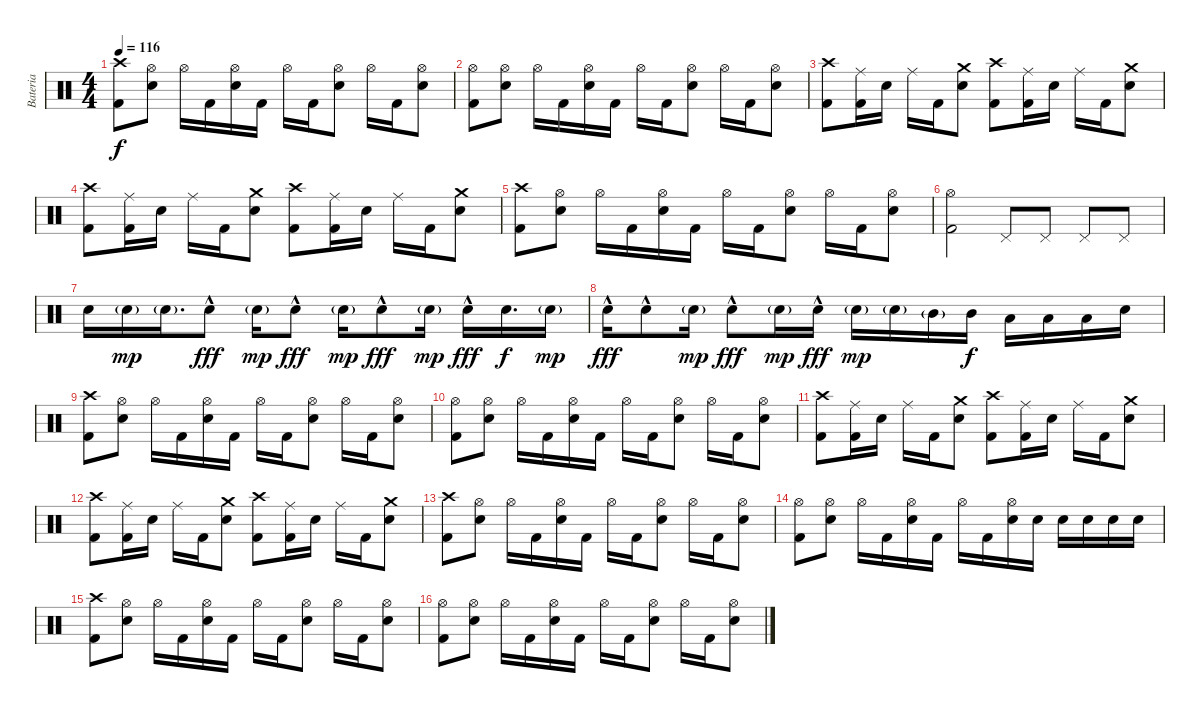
\track ("Bateria" "Bateria") {instrument percussion}
\staff {score}
\articulation defaults
\ts (4 4)
\tempo 116
\clef neutral
\ks c
("Kick (hit) 2" "Crash high (hit)").8{dy f} ("Snare (hit) 2" "Hi-Hat (open)").8 "Hi-Hat (open)".16 "Kick (hit) 2".16 ("Snare (hit) 2" "Hi-Hat (open)").16 "Kick (hit) 2".16 "Hi-Hat (open)".16 "Kick (hit) 2".16 ("Snare (hit) 2" "Hi-Hat (open)").8 "Hi-Hat (open)".16 "Kick (hit) 2".16 ("Snare (hit) 2" "Hi-Hat (open)").8 |
("Kick (hit) 2" "Hi-Hat (open)").8 ("Snare (hit) 2" "Hi-Hat (open)").8 "Hi-Hat (open)".16 "Kick (hit) 2".16 ("Snare (hit) 2" "Hi-Hat (open)").16 "Kick (hit) 2".16 "Hi-Hat (open)".16 "Kick (hit) 2".16 ("Snare (hit) 2" "Hi-Hat (open)").8 "Hi-Hat (open)".16 "Kick (hit) 2".16 ("Snare (hit) 2" "Hi-Hat (open)").8 |
("Kick (hit) 2" "Crash high (hit)").8 ("Kick (hit) 2" "Ride (middle)").16 "Snare (hit) 2".16 "Ride (middle)".16 "Kick (hit) 2".16 ("Snare (hit) 2" "Crash medium (hit)").8 ("Kick (hit) 2" "Crash high (hit)").8 ("Kick (hit) 2" "Ride (middle)").16 "Snare (hit) 2".16 "Ride (middle)".16 "Kick (hit) 2".16 ("Snare (hit) 2" "Crash medium (hit)").8 |
("Kick (hit) 2" "Crash high (hit)").8 ("Kick (hit) 2" "Ride (middle)").16 "Snare (hit) 2".16 "Ride (middle)".16 "Kick (hit) 2".16 ("Snare (hit) 2" "Crash medium (hit)").8 ("Kick (hit) 2" "Crash high (hit)").8 ("Kick (hit) 2" "Ride (middle)").16 "Snare (hit) 2".16 "Ride (middle)".16 "Kick (hit) 2".16 ("Snare (hit) 2" "Crash medium (hit)").8 |
("Kick (hit) 2" "Crash high (hit)").8 ("Snare (hit) 2" "Hi-Hat (open)").8 "Hi-Hat (open)".16 "Kick (hit) 2".16 ("Snare (hit) 2" "Hi-Hat (open)").16 "Kick (hit) 2".16 "Hi-Hat (open)".16 "Kick (hit) 2".16 ("Snare (hit) 2" "Hi-Hat (open)").8 "Hi-Hat (open)".16 "Kick (hit) 2".16 ("Snare (hit) 2" "Hi-Hat (open)").8 |
("Kick (hit) 2" "Hi-Hat (open)").2 "Pedal Hi-Hat (hit)".8 "Pedal Hi-Hat (hit)".8 "Pedal Hi-Hat (hit)".8 "Pedal Hi-Hat (hit)".8 |
"Snare (hit) 2".16 "Snare (hit) 2"{g}.16{dy mp} "Snare (hit) 2"{g}.16{d} "Snare (hit) 2"{hac}.8{dy fff} "Snare (hit) 2"{g}.16{dy mp} "Snare (hit) 2"{hac}.8{dy fff} "Snare (hit) 2"{g}.16{dy mp} "Snare (hit) 2"{hac}.8{dy fff} "Snare (hit) 2"{g}.16{dy mp} "Snare (hit) 2"{hac}.16{dy fff} "Snare (hit) 2".16{d dy f} "Snare (hit) 2"{g}.16{dy mp} |
"Snare (hit) 2"{hac}.16{dy fff} "Snare (hit) 2"{hac}.8 "Snare (hit) 2"{g}.16{dy mp} "Snare (hit) 2"{hac}.8{dy fff} "Snare (hit) 2"{g}.16{dy mp} "Snare (hit) 2"{hac}.16{dy fff} "Snare (hit) 2"{g}.16{dy mp} "Snare (hit) 2"{g}.16 "Mid Tom (hit)"{g}.16 "Mid Tom (hit)".16{dy f} "Low Tom (hit)".16 "Low Tom (hit)".16 "Low Tom (hit)".16 "Snare (hit) 2".16 |
("Kick (hit) 2" "Crash high (hit)").8 ("Snare (hit) 2" "Hi-Hat (open)").8 "Hi-Hat (open)".16 "Kick (hit) 2".16 ("Snare (hit) 2" "Hi-Hat (open)").16 "Kick (hit) 2".16 "Hi-Hat (open)".16 "Kick (hit) 2".16 ("Snare (hit) 2" "Hi-Hat (open)").8 "Hi-Hat (open)".16 "Kick (hit) 2".16 ("Snare (hit) 2" "Hi-Hat (open)").8 |
("Kick (hit) 2" "Hi-Hat (open)").8 ("Snare (hit) 2" "Hi-Hat (open)").8 "Hi-Hat (open)".16 "Kick (hit) 2".16 ("Snare (hit) 2" "Hi-Hat (open)").16 "Kick (hit) 2".16 "Hi-Hat (open)".16 "Kick (hit) 2".16 ("Snare (hit) 2" "Hi-Hat (open)").8 "Hi-Hat (open)".16 "Kick (hit) 2".16 ("Snare (hit) 2" "Hi-Hat (open)").8 |
("Kick (hit) 2" "Crash high (hit)").8 ("Kick (hit) 2" "Ride (middle)").16 "Snare (hit) 2".16 "Ride (middle)".16 "Kick (hit) 2".16 ("Snare (hit) 2" "Crash medium (hit)").8 ("Kick (hit) 2" "Crash high (hit)").8 ("Kick (hit) 2" "Ride (middle)").16 "Snare (hit) 2".16 "Ride (middle)".16 "Kick (hit) 2".16 ("Snare (hit) 2" "Crash medium (hit)").8 |
("Kick (hit) 2" "Crash high (hit)").8 ("Kick (hit) 2" "Ride (middle)").16 "Snare (hit) 2".16 "Ride (middle)".16 "Kick (hit) 2".16 ("Snare (hit) 2" "Crash medium (hit)").8 ("Kick (hit) 2" "Crash high (hit)").8 ("Kick (hit) 2" "Ride (middle)").16 "Snare (hit) 2".16 "Ride (middle)".16 "Kick (hit) 2".16 ("Snare (hit) 2" "Crash medium (hit)").8 |
("Kick (hit) 2" "Crash high (hit)").8 ("Snare (hit) 2" "Hi-Hat (open)").8 "Hi-Hat (open)".16 "Kick (hit) 2".16 ("Snare (hit) 2" "Hi-Hat (open)").16 "Kick (hit) 2".16 "Hi-Hat (open)".16 "Kick (hit) 2".16 ("Snare (hit) 2" "Hi-Hat (open)").8 "Hi-Hat (open)".16 "Kick (hit) 2".16 ("Snare (hit) 2" "Hi-Hat (open)").8 |
("Kick (hit) 2" "Hi-Hat (open)").8 ("Snare (hit) 2" "Hi-Hat (open)").8 "Hi-Hat (open)".16 "Kick (hit) 2".16 ("Snare (hit) 2" "Hi-Hat (open)").16 "Kick (hit) 2".16 "Hi-Hat (open)".16 "Kick (hit) 2".16 ("Snare (hit) 2" "Hi-Hat (open)").16 "Snare (hit) 2".16 "Snare (hit) 2".16 "Snare (hit) 2".16 "Snare (hit) 2".16 "Snare (hit) 2".16 |
("Kick (hit) 2" "Crash high (hit)").8 ("Snare (hit) 2" "Hi-Hat (open)").8 "Hi-Hat (open)".16 "Kick (hit) 2".16 ("Snare (hit) 2" "Hi-Hat (open)").16 "Kick (hit) 2".16 "Hi-Hat (open)".16 "Kick (hit) 2".16 ("Snare (hit) 2" "Hi-Hat (open)").8 "Hi-Hat (open)".16 "Kick (hit) 2".16 ("Snare (hit) 2" "Hi-Hat (open)").8 |
("Kick (hit) 2" "Hi-Hat (open)").8 ("Snare (hit) 2" "Hi-Hat (open)").8 "Hi-Hat (open)".16 "Kick (hit) 2".16 ("Snare (hit) 2" "Hi-Hat (open)").16 "Kick (hit) 2".16 "Hi-Hat (open)".16 "Kick (hit) 2".16 ("Snare (hit) 2" "Hi-Hat (open)").8 "Hi-Hat (open)".16 "Kick (hit) 2".16 ("Snare (hit) 2" "Hi-Hat (open)").8
